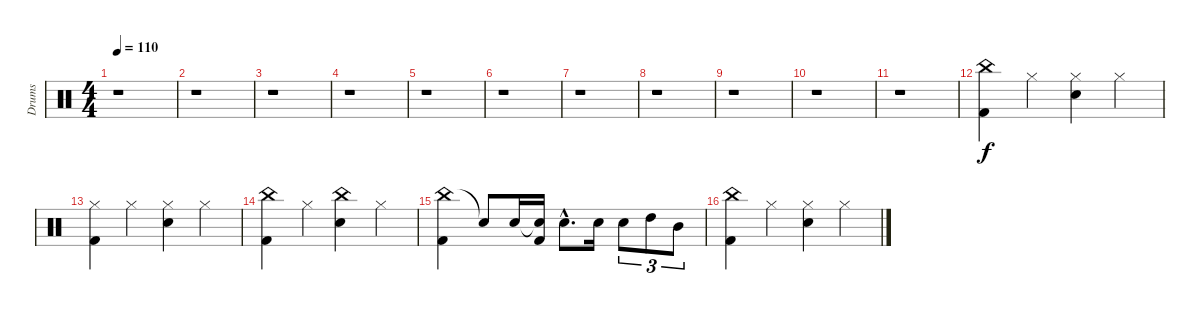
\track ("Drums" "Drums") {instrument percussion}
\staff {score}
\articulation defaults
\ts (4 4)
\tempo 110
\clef neutral
\ks c
r.1{dy f} |
r.1 |
r.1 |
r.1 |
r.1 |
r.1 |
r.1 |
r.1 |
r.1 |
r.1 |
r.1 |
("China (hit)" "Kick (hit) 2").4 "Hi-Hat (closed)".4 ("Hi-Hat (closed)" "Snare (hit) 2").4 "Hi-Hat (closed)".4 |
("Hi-Hat (closed)" "Kick (hit) 2").4 "Hi-Hat (closed)".4 ("Hi-Hat (closed)" "Snare (hit) 2").4 "Hi-Hat (closed)".4 |
("China (hit)" "Kick (hit) 2").4 "Hi-Hat (closed)".4 ("China (hit)" "Snare (hit) 2").4 "Hi-Hat (closed)".4 |
("China (hit)" "Kick (hit) 2").4 "Snare (hit)"{t}.8 "Snare (hit) 2".16 ("Snare (hit)"{t} "Kick (hit) 2").16 "Snare (hit) 2"{hac}.8{d} "Snare (hit) 2".16 "Snare (hit) 2".8{tu (3 2)} "High Tom (hit)".8{tu (3 2)} "Mid Tom (hit)".8{tu (3 2)} |
("China (hit)" "Kick (hit) 2").4 "Hi-Hat (closed)".4 ("Hi-Hat (closed)" "Snare (hit) 2").4 "Hi-Hat (closed)".4
